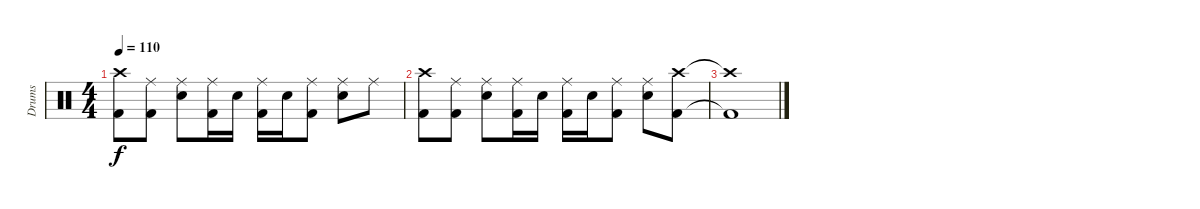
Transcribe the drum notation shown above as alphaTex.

\track ("Drums" "Drums") {instrument percussion}
\staff {score}
\articulation defaults
\ts (4 4)
\tempo 110
\clef neutral
\ks c
("Crash high (hit)" "Kick (hit) 2").8{dy f} ("Ride (middle)" "Kick (hit) 2").8 ("Ride (middle)" "Electric Snare (hit)").8 ("Ride (middle)" "Kick (hit) 2").16 "Electric Snare (hit)".16 ("Ride (middle)" "Kick (hit) 2").16 "Electric Snare (hit)".16 ("Ride (middle)" "Kick (hit) 2").8 ("Ride (middle)" "Electric Snare (hit)").8 "Ride (middle)".8 |
("Crash high (hit)" "Kick (hit) 2").8 ("Ride (middle)" "Kick (hit) 2").8 ("Ride (middle)" "Electric Snare (hit)").8 ("Ride (middle)" "Kick (hit) 2").16 "Electric Snare (hit)".16 ("Ride (middle)" "Kick (hit) 2").16 "Electric Snare (hit)".16 ("Ride (middle)" "Kick (hit) 2").8 ("Ride (middle)" "Electric Snare (hit)").8 ("Crash high (hit)" "Kick (hit) 2").8 |
("Crash high (hit)"{t} "Kick (hit) 2"{t}).1
